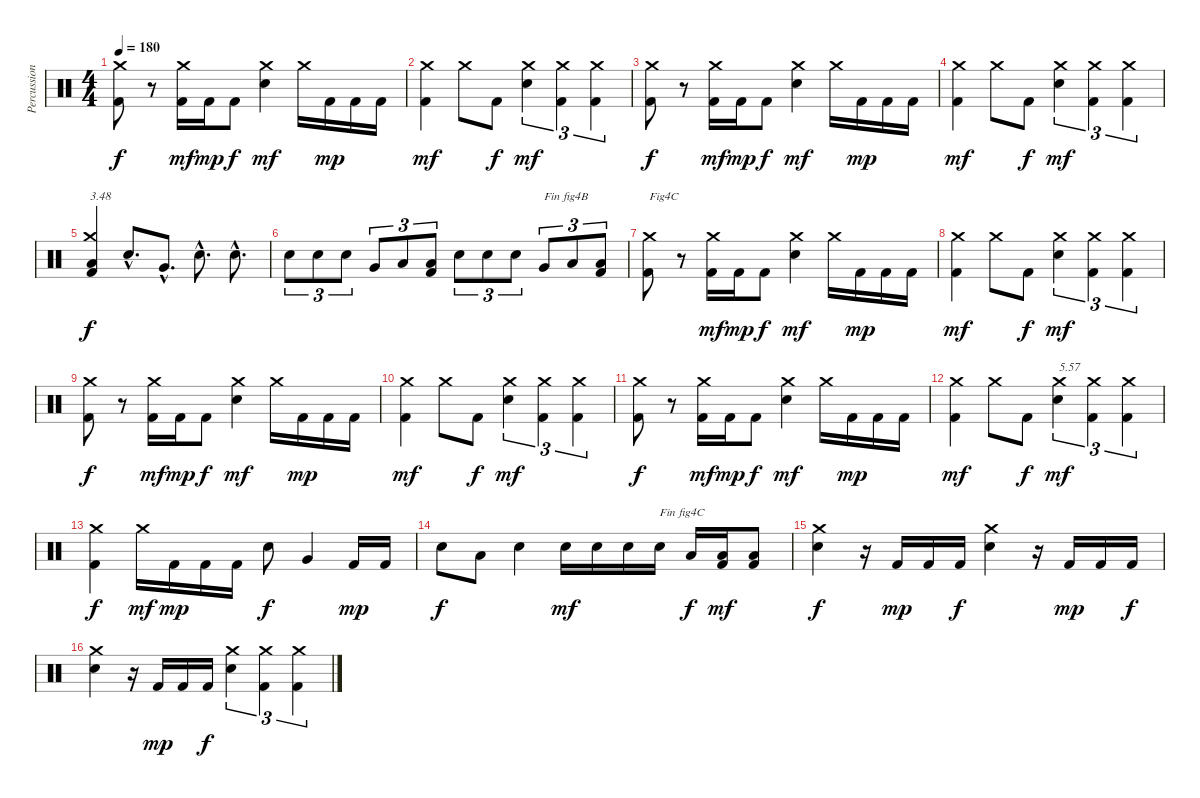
\track ("Percussions" "Percussion") {instrument percussion}
\staff {score}
\articulation defaults
\ts (4 4)
\tempo 180
\clef neutral
\ks c
("Kick (hit) 2" "Crash medium (hit)").8{dy f} r.8 ("Kick (hit) 2" "Crash medium (hit)").16{dy mf} "Kick (hit) 2".16{dy mp} "Kick (hit) 2".8{dy f} ("Electric Snare (hit)" "Crash medium (hit)").4{dy mf} "Crash medium (hit)".16 "Kick (hit) 2".16{dy mp} "Kick (hit) 2".16 "Kick (hit) 2".16 |
("Kick (hit) 2" "Crash medium (hit)").4{dy mf} "Crash medium (hit)".8 "Kick (hit) 2".8{dy f} ("Electric Snare (hit)" "Crash medium (hit)").4{tu (3 2) dy mf} ("Kick (hit) 2" "Crash medium (hit)").4{tu (3 2)} ("Kick (hit) 2" "Crash medium (hit)").4{tu (3 2)} |
("Kick (hit) 2" "Crash medium (hit)").8{dy f} r.8 ("Kick (hit) 2" "Crash medium (hit)").16{dy mf} "Kick (hit) 2".16{dy mp} "Kick (hit) 2".8{dy f} ("Electric Snare (hit)" "Crash medium (hit)").4{dy mf} "Crash medium (hit)".16 "Kick (hit) 2".16{dy mp} "Kick (hit) 2".16 "Kick (hit) 2".16 |
("Kick (hit) 2" "Crash medium (hit)").4{dy mf} "Crash medium (hit)".8 "Kick (hit) 2".8{dy f} ("Electric Snare (hit)" "Crash medium (hit)").4{tu (3 2) dy mf} ("Kick (hit) 2" "Crash medium (hit)").4{tu (3 2)} ("Kick (hit) 2" "Crash medium (hit)").4{tu (3 2)} |
("Kick (hit) 2" "Low Floor Tom (hit)" "Crash medium (hit)").4{txt "3.48" dy f} "Electric Snare (hit)"{hac}.8{d} "Very Low Tom (hit)"{hac}.8{d} "Electric Snare (hit)"{hac}.8{d} "Electric Snare (hit)"{hac}.8{d} |
"Electric Snare (hit)".8{tu (3 2)} "Electric Snare (hit)".8{tu (3 2)} "Electric Snare (hit)".8{tu (3 2)} "Very Low Tom (hit)".8{tu (3 2)} "Low Floor Tom (hit)".8{tu (3 2)} ("Kick (hit) 2" "Low Floor Tom (hit)").8{tu (3 2)} "Electric Snare (hit)".8{tu (3 2)} "Electric Snare (hit)".8{tu (3 2)} "Electric Snare (hit)".8{tu (3 2)} "Very Low Tom (hit)".8{tu (3 2) txt "Fin fig4B"} "Low Floor Tom (hit)".8{tu (3 2)} ("Kick (hit) 2" "Low Floor Tom (hit)").8{tu (3 2)} |
("Kick (hit) 2" "Crash medium (hit)").8{txt "Fig4C"} r.8 ("Kick (hit) 2" "Crash medium (hit)").16{dy mf} "Kick (hit) 2".16{dy mp} "Kick (hit) 2".8{dy f} ("Electric Snare (hit)" "Crash medium (hit)").4{dy mf} "Crash medium (hit)".16 "Kick (hit) 2".16{dy mp} "Kick (hit) 2".16 "Kick (hit) 2".16 |
("Kick (hit) 2" "Crash medium (hit)").4{dy mf} "Crash medium (hit)".8 "Kick (hit) 2".8{dy f} ("Electric Snare (hit)" "Crash medium (hit)").4{tu (3 2) dy mf} ("Kick (hit) 2" "Crash medium (hit)").4{tu (3 2)} ("Kick (hit) 2" "Crash medium (hit)").4{tu (3 2)} |
("Kick (hit) 2" "Crash medium (hit)").8{dy f} r.8 ("Kick (hit) 2" "Crash medium (hit)").16{dy mf} "Kick (hit) 2".16{dy mp} "Kick (hit) 2".8{dy f} ("Electric Snare (hit)" "Crash medium (hit)").4{dy mf} "Crash medium (hit)".16 "Kick (hit) 2".16{dy mp} "Kick (hit) 2".16 "Kick (hit) 2".16 |
("Kick (hit) 2" "Crash medium (hit)").4{dy mf} "Crash medium (hit)".8 "Kick (hit) 2".8{dy f} ("Electric Snare (hit)" "Crash medium (hit)").4{tu (3 2) dy mf} ("Kick (hit) 2" "Crash medium (hit)").4{tu (3 2)} ("Kick (hit) 2" "Crash medium (hit)").4{tu (3 2)} |
("Kick (hit) 2" "Crash medium (hit)").8{dy f} r.8 ("Kick (hit) 2" "Crash medium (hit)").16{dy mf} "Kick (hit) 2".16{dy mp} "Kick (hit) 2".8{dy f} ("Electric Snare (hit)" "Crash medium (hit)").4{dy mf} "Crash medium (hit)".16 "Kick (hit) 2".16{dy mp} "Kick (hit) 2".16 "Kick (hit) 2".16 |
("Kick (hit) 2" "Crash medium (hit)").4{dy mf} "Crash medium (hit)".8 "Kick (hit) 2".8{dy f} ("Electric Snare (hit)" "Crash medium (hit)").4{tu (3 2) txt "5.57" dy mf} ("Kick (hit) 2" "Crash medium (hit)").4{tu (3 2)} ("Kick (hit) 2" "Crash medium (hit)").4{tu (3 2)} |
("Kick (hit) 2" "Crash medium (hit)").4{dy f} "Crash medium (hit)".16{dy mf} "Kick (hit) 2".16{dy mp} "Kick (hit) 2".16 "Kick (hit) 2".16 "Electric Snare (hit)".8{dy f} "Very Low Tom (hit)".4 "Kick (hit) 2".16{dy mp} "Kick (hit) 2".16 |
"Electric Snare (hit)".8{dy f} "Low Floor Tom (hit)".8 "Electric Snare (hit)".4 "Electric Snare (hit)".16{dy mf} "Electric Snare (hit)".16 "Electric Snare (hit)".16 "Electric Snare (hit)".16{txt "Fin fig4C"} "Low Floor Tom (hit)".16{dy f} ("Kick (hit) 2" "Low Floor Tom (hit)").16{dy mf} ("Kick (hit) 2" "Low Floor Tom (hit)").8 |
("Electric Snare (hit)" "Crash medium (hit)").4{dy f} r.16 "Kick (hit) 2".16{dy mp} "Kick (hit) 2".16 "Kick (hit) 2".16{dy f} ("Electric Snare (hit)" "Crash medium (hit)").4 r.16 "Kick (hit) 2".16{dy mp} "Kick (hit) 2".16 "Kick (hit) 2".16{dy f} |
("Electric Snare (hit)" "Crash medium (hit)").4 r.16 "Kick (hit) 2".16{dy mp} "Kick (hit) 2".16 "Kick (hit) 2".16{dy f} ("Electric Snare (hit)" "Crash medium (hit)").4{tu (3 2)} ("Kick (hit) 2" "Crash medium (hit)").4{tu (3 2)} ("Kick (hit) 2" "Crash medium (hit)").4{tu (3 2)}
